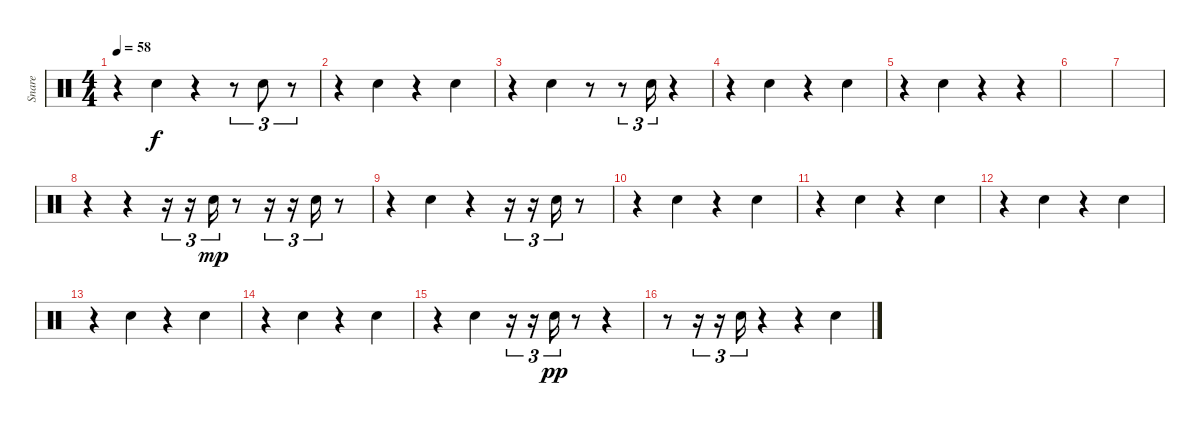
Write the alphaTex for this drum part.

\track ("Snare" "Snare") {instrument percussion}
\staff {score}
\articulation defaults
\ts (4 4)
\tempo 58
\clef neutral
\ks c
r.4{dy f} "Snare (hit) 2".4 r.4 r.8{tu (3 2)} "Snare (hit) 2".8{tu (3 2)} r.8{tu (3 2)} |
r.4 "Snare (hit) 2".4 r.4 "Snare (hit) 2".4 |
r.4 "Snare (hit) 2".4 r.8 r.8{tu (3 2)} "Snare (hit) 2".16{tu (3 2)} r.4 |
r.4 "Snare (hit) 2".4 r.4 "Snare (hit) 2".4 |
r.4 "Snare (hit) 2".4 r.4 r.4 |
|
|
r.4 r.4 r.16{tu (3 2)} r.16{tu (3 2)} "Snare (hit) 2".16{tu (3 2) dy mp} r.8 r.16{tu (3 2)} r.16{tu (3 2)} "Snare (hit) 2".16{tu (3 2)} r.8 |
r.4 "Snare (hit) 2".4 r.4 r.16{tu (3 2)} r.16{tu (3 2)} "Snare (hit) 2".16{tu (3 2)} r.8 |
r.4 "Snare (hit) 2".4 r.4 "Snare (hit) 2".4 |
r.4 "Snare (hit) 2".4 r.4 "Snare (hit) 2".4 |
r.4 "Snare (hit) 2".4 r.4 "Snare (hit) 2".4 |
r.4 "Snare (hit) 2".4 r.4 "Snare (hit) 2".4 |
r.4 "Snare (hit) 2".4 r.4 "Snare (hit) 2".4 |
r.4 "Snare (hit) 2".4 r.16{tu (3 2)} r.16{tu (3 2)} "Snare (hit) 2".16{tu (3 2) dy pp} r.8 r.4 |
r.8 r.16{tu (3 2)} r.16{tu (3 2)} "Snare (hit) 2".16{tu (3 2)} r.4 r.4 "Snare (hit) 2".4
